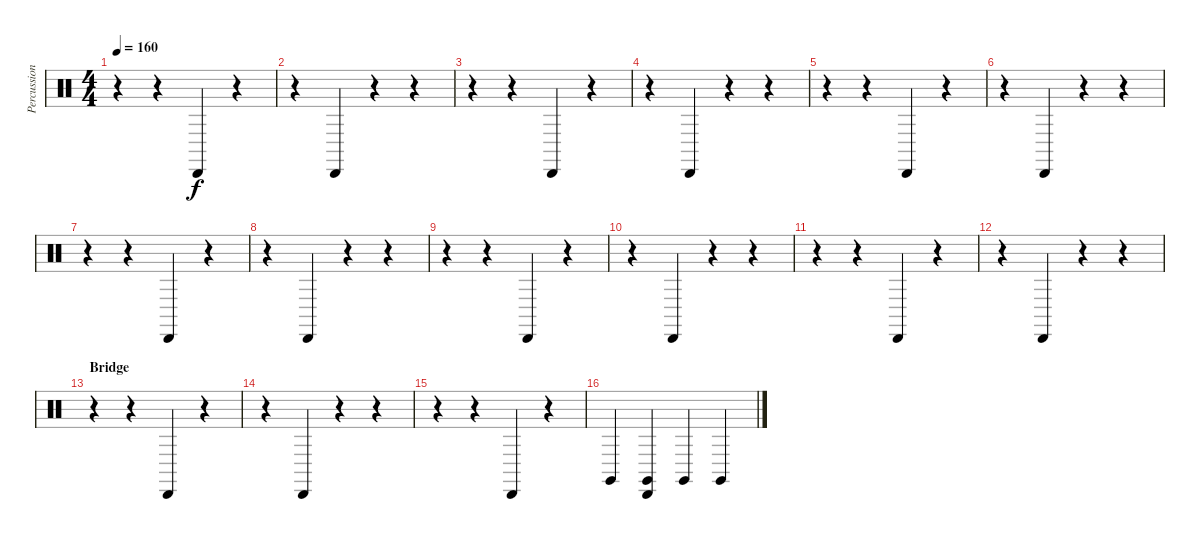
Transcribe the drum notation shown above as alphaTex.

\track ("Percussion" "Percussion") {instrument percussion}
\staff {score}
\articulation defaults
\ts (4 4)
\tempo 160
\clef neutral
\ks c
r.4{dy f} r.4 "Cabasa (hit)".4 r.4 |
r.4 "Cabasa (hit)".4 r.4 r.4 |
r.4 r.4 "Cabasa (hit)".4 r.4 |
r.4 "Cabasa (hit)".4 r.4 r.4 |
r.4 r.4 "Cabasa (hit)".4 r.4 |
r.4 "Cabasa (hit)".4 r.4 r.4 |
r.4 r.4 "Cabasa (hit)".4 r.4 |
r.4 "Cabasa (hit)".4 r.4 r.4 |
r.4 r.4 "Cabasa (hit)".4 r.4 |
r.4 "Cabasa (hit)".4 r.4 r.4 |
r.4 r.4 "Cabasa (hit)".4 r.4 |
r.4 "Cabasa (hit)".4 r.4 r.4 |
\section ("" "Bridge")
r.4 r.4 "Cabasa (hit)".4 r.4 |
r.4 "Cabasa (hit)".4 r.4 r.4 |
r.4 r.4 "Cabasa (hit)".4 r.4 |
"Claves (hit)".4 ("Cabasa (hit)" "Claves (hit)").4 "Claves (hit)".4 "Claves (hit)".4
